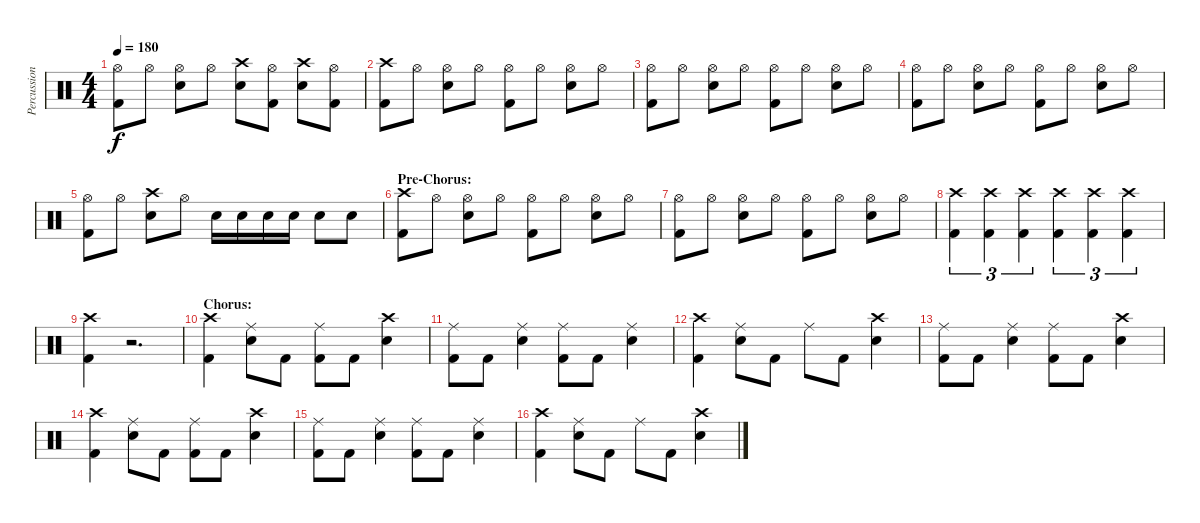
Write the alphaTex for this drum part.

\track ("Percussion" "Percussion") {instrument percussion}
\staff {score}
\articulation defaults
\ts (4 4)
\tempo 180
\clef neutral
\ks c
("Hi-Hat (open)" "Kick (hit) 2").8{dy f} "Hi-Hat (open)".8 ("Hi-Hat (open)" "Snare (hit) 2").8 "Hi-Hat (open)".8 ("Crash high (hit)" "Snare (hit) 2").8 ("Hi-Hat (open)" "Kick (hit) 2").8 ("Crash high (hit)" "Snare (hit) 2").8 ("Hi-Hat (open)" "Kick (hit) 2").8 |
("Crash high (hit)" "Kick (hit) 2").8 "Hi-Hat (open)".8 ("Hi-Hat (open)" "Snare (hit) 2").8 "Hi-Hat (open)".8 ("Hi-Hat (open)" "Kick (hit) 2").8 "Hi-Hat (open)".8 ("Hi-Hat (open)" "Snare (hit) 2").8 "Hi-Hat (open)".8 |
("Hi-Hat (open)" "Kick (hit) 2").8 "Hi-Hat (open)".8 ("Hi-Hat (open)" "Snare (hit) 2").8 "Hi-Hat (open)".8 ("Hi-Hat (open)" "Kick (hit) 2").8 "Hi-Hat (open)".8 ("Hi-Hat (open)" "Snare (hit) 2").8 "Hi-Hat (open)".8 |
("Hi-Hat (open)" "Kick (hit) 2").8 "Hi-Hat (open)".8 ("Hi-Hat (open)" "Snare (hit) 2").8 "Hi-Hat (open)".8 ("Hi-Hat (open)" "Kick (hit) 2").8 "Hi-Hat (open)".8 ("Hi-Hat (open)" "Snare (hit) 2").8 "Hi-Hat (open)".8 |
("Hi-Hat (open)" "Kick (hit) 2").8 "Hi-Hat (open)".8 ("Crash high (hit)" "Snare (hit) 2").8 "Hi-Hat (open)".8 "Snare (hit) 2".16 "Snare (hit) 2".16 "Snare (hit) 2".16 "Snare (hit) 2".16 "Snare (hit) 2".8 "Snare (hit) 2".8 |
\section ("" "Pre-Chorus:")
("Crash high (hit)" "Kick (hit) 2").8 "Hi-Hat (open)".8 ("Hi-Hat (open)" "Snare (hit) 2").8 "Hi-Hat (open)".8 ("Hi-Hat (open)" "Kick (hit) 2").8 "Hi-Hat (open)".8 ("Hi-Hat (open)" "Snare (hit) 2").8 "Hi-Hat (open)".8 |
("Hi-Hat (open)" "Kick (hit) 2").8 "Hi-Hat (open)".8 ("Hi-Hat (open)" "Snare (hit) 2").8 "Hi-Hat (open)".8 ("Hi-Hat (open)" "Kick (hit) 2").8 "Hi-Hat (open)".8 ("Hi-Hat (open)" "Snare (hit) 2").8 "Hi-Hat (open)".8 |
("Crash high (hit)" "Kick (hit) 2").4{tu (3 2)} ("Crash high (hit)" "Kick (hit) 2").4{tu (3 2)} ("Crash high (hit)" "Kick (hit) 2").4{tu (3 2)} ("Crash high (hit)" "Kick (hit) 2").4{tu (3 2)} ("Crash high (hit)" "Kick (hit) 2").4{tu (3 2)} ("Crash high (hit)" "Kick (hit) 2").4{tu (3 2)} |
("Crash high (hit)" "Kick (hit) 2").4 r.2{d} |
\section ("" "Chorus:")
("Crash high (hit)" "Kick (hit) 2").4 ("Ride (middle)" "Snare (hit) 2").8 "Kick (hit) 2".8 ("Ride (middle)" "Kick (hit) 2").8 "Kick (hit) 2".8 ("Crash high (hit)" "Snare (hit) 2").4 |
("Ride (middle)" "Kick (hit) 2").8 "Kick (hit) 2".8 ("Ride (middle)" "Snare (hit) 2").4 ("Ride (middle)" "Kick (hit) 2").8 "Kick (hit) 2".8 ("Ride (middle)" "Snare (hit) 2").4 |
("Crash high (hit)" "Kick (hit) 2").4 ("Ride (middle)" "Snare (hit) 2").8 "Kick (hit) 2".8 "Ride (middle)".8 "Kick (hit) 2".8 ("Crash high (hit)" "Snare (hit) 2").4 |
("Ride (middle)" "Kick (hit) 2").8 "Kick (hit) 2".8 ("Ride (middle)" "Snare (hit) 2").4 ("Ride (middle)" "Kick (hit) 2").8 "Kick (hit) 2".8 ("Crash high (hit)" "Snare (hit) 2").4 |
("Crash high (hit)" "Kick (hit) 2").4 ("Ride (middle)" "Snare (hit) 2").8 "Kick (hit) 2".8 ("Ride (middle)" "Kick (hit) 2").8 "Kick (hit) 2".8 ("Crash high (hit)" "Snare (hit) 2").4 |
("Ride (middle)" "Kick (hit) 2").8 "Kick (hit) 2".8 ("Ride (middle)" "Snare (hit) 2").4 ("Ride (middle)" "Kick (hit) 2").8 "Kick (hit) 2".8 ("Ride (middle)" "Snare (hit) 2").4 |
("Crash high (hit)" "Kick (hit) 2").4 ("Ride (middle)" "Snare (hit) 2").8 "Kick (hit) 2".8 "Ride (middle)".8 "Kick (hit) 2".8 ("Crash high (hit)" "Snare (hit) 2").4
